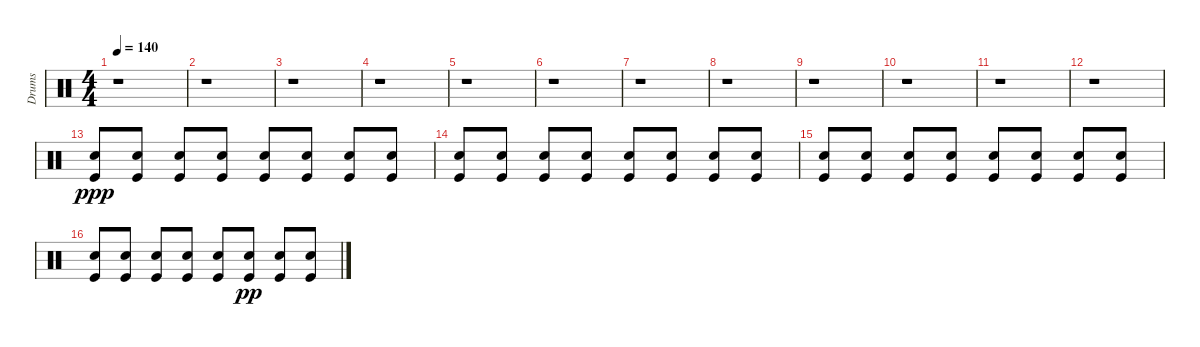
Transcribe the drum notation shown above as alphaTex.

\track ("Drums" "Drums") {instrument percussion}
\staff {score}
\articulation defaults
\ts (4 4)
\tempo 140
\clef neutral
\ks c
r.1{dy mf} |
r.1 |
r.1 |
r.1 |
r.1 |
r.1 |
r.1 |
r.1 |
r.1 |
r.1 |
r.1 |
r.1 |
("Kick (hit)" "Electric Snare (hit)").8{dy ppp} ("Electric Snare (hit)" "Kick (hit)").8 ("Kick (hit)" "Electric Snare (hit)").8 ("Electric Snare (hit)" "Kick (hit)").8 ("Kick (hit)" "Electric Snare (hit)").8 ("Electric Snare (hit)" "Kick (hit)").8 ("Kick (hit)" "Electric Snare (hit)").8 ("Kick (hit)" "Electric Snare (hit)").8 |
("Kick (hit)" "Electric Snare (hit)").8 ("Electric Snare (hit)" "Kick (hit)").8 ("Electric Snare (hit)" "Kick (hit)").8 ("Electric Snare (hit)" "Kick (hit)").8 ("Electric Snare (hit)" "Kick (hit)").8 ("Electric Snare (hit)" "Kick (hit)").8 ("Kick (hit)" "Electric Snare (hit)").8 ("Kick (hit)" "Electric Snare (hit)").8 |
("Kick (hit)" "Electric Snare (hit)").8 ("Electric Snare (hit)" "Kick (hit)").8 ("Kick (hit)" "Electric Snare (hit)").8 ("Electric Snare (hit)" "Kick (hit)").8 ("Electric Snare (hit)" "Kick (hit)").8 ("Kick (hit)" "Electric Snare (hit)").8 ("Kick (hit)" "Electric Snare (hit)").8 ("Kick (hit)" "Electric Snare (hit)").8 |
("Kick (hit)" "Electric Snare (hit)").8 ("Kick (hit)" "Electric Snare (hit)").8 ("Electric Snare (hit)" "Kick (hit)").8 ("Electric Snare (hit)" "Kick (hit)").8 ("Electric Snare (hit)" "Kick (hit)").8 ("Electric Snare (hit)" "Kick (hit)").8{dy pp} ("Kick (hit)" "Electric Snare (hit)").8 ("Kick (hit)" "Electric Snare (hit)").8
